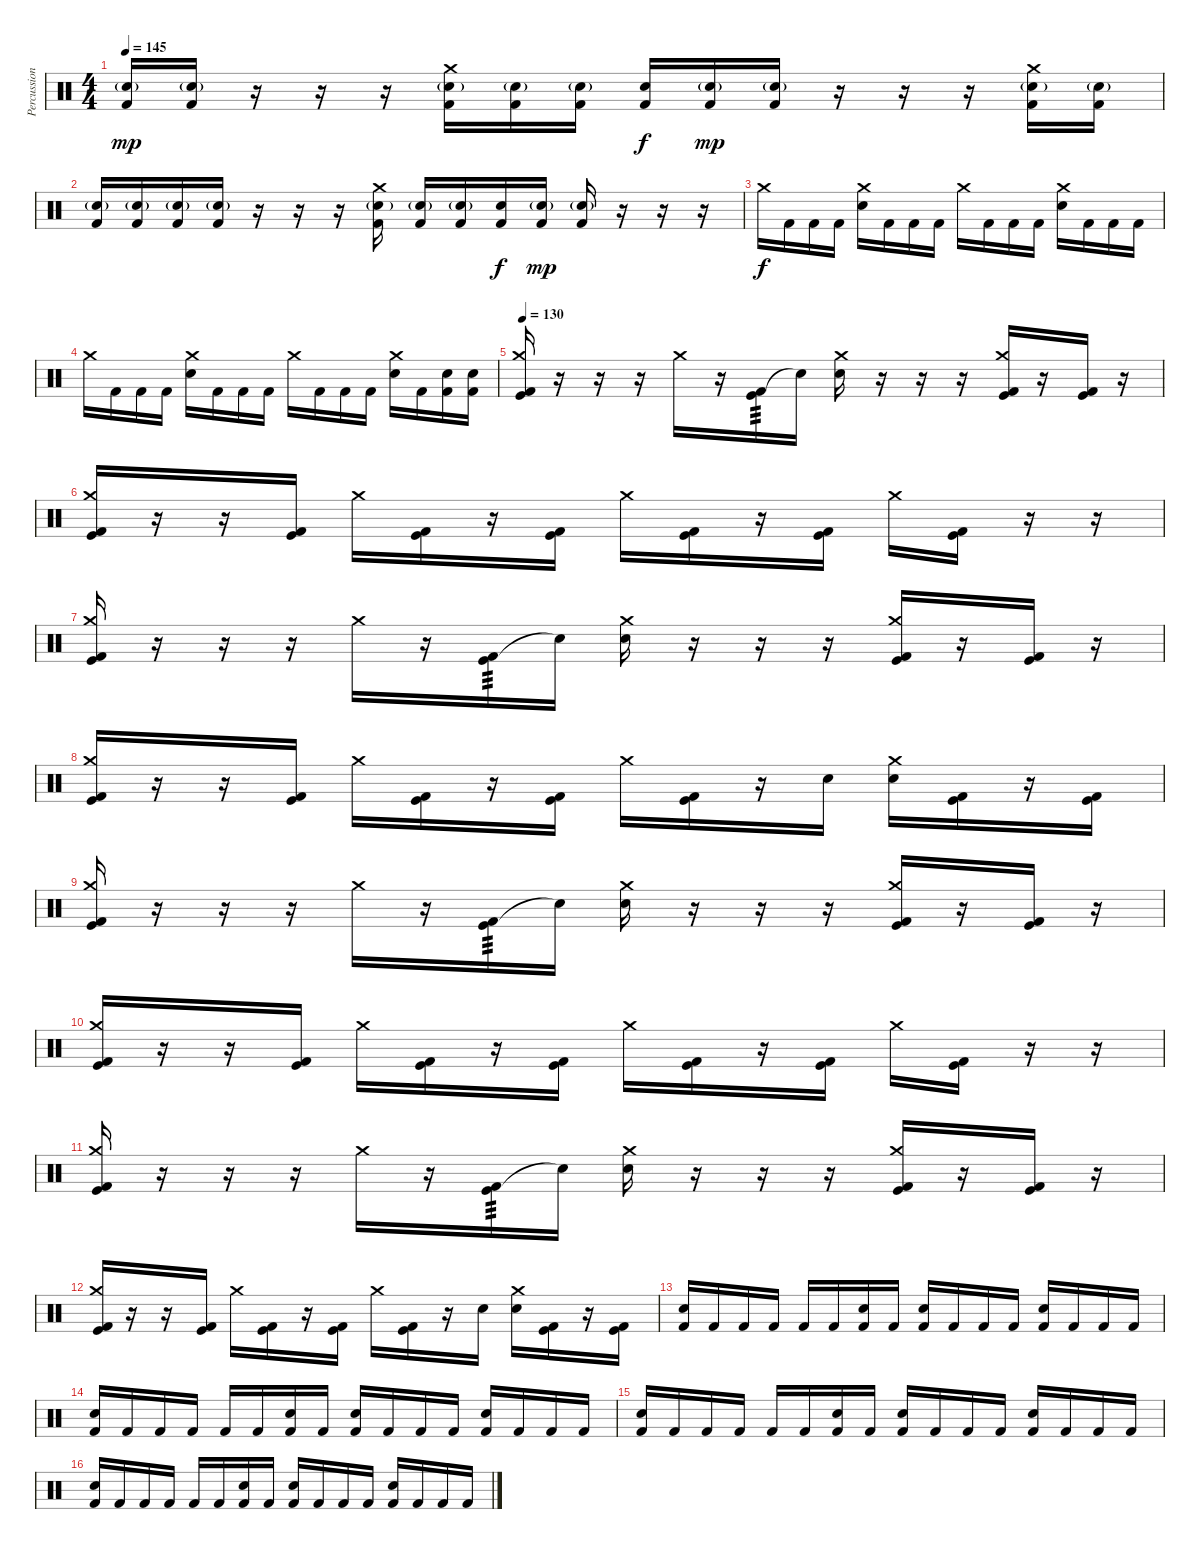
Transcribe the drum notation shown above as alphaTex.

\track ("Percussion" "Percussion") {instrument percussion}
\staff {score}
\articulation defaults
\ts (4 4)
\tempo 145
\clef neutral
\ks c
("Snare (hit) 2"{g} "Kick (hit) 2").16{dy mp} ("Snare (hit) 2"{g} "Kick (hit) 2").16 r.16 r.16 r.16 ("Crash medium (hit)" "Snare (hit) 2"{g} "Kick (hit) 2").16 ("Snare (hit) 2"{g} "Kick (hit) 2").16 ("Snare (hit) 2"{g} "Kick (hit) 2").16 ("Snare (hit) 2" "Kick (hit) 2").16{dy f} ("Snare (hit) 2"{g} "Kick (hit) 2").16{dy mp} ("Snare (hit) 2"{g} "Kick (hit) 2").16 r.16 r.16 r.16 ("Crash medium (hit)" "Snare (hit) 2"{g} "Kick (hit) 2").16 ("Snare (hit) 2"{g} "Kick (hit) 2").16 |
("Snare (hit) 2"{g} "Kick (hit) 2").16 ("Snare (hit) 2"{g} "Kick (hit) 2").16 ("Snare (hit) 2"{g} "Kick (hit) 2").16 ("Snare (hit) 2"{g} "Kick (hit) 2").16 r.16 r.16 r.16 ("Crash medium (hit)" "Snare (hit) 2"{g} "Kick (hit) 2").16 ("Snare (hit) 2"{g} "Kick (hit) 2").16 ("Snare (hit) 2"{g} "Kick (hit) 2").16 ("Snare (hit) 2" "Kick (hit) 2").16{dy f} ("Snare (hit) 2"{g} "Kick (hit) 2").16{dy mp} ("Snare (hit) 2"{g} "Kick (hit) 2").16 r.16 r.16 r.16 |
"Crash medium (hit)".16{dy f} "Kick (hit) 2".16 "Kick (hit) 2".16 "Kick (hit) 2".16 ("Crash medium (hit)" "Electric Snare (hit)").16 "Kick (hit) 2".16 "Kick (hit) 2".16 "Kick (hit) 2".16 "Crash medium (hit)".16 "Kick (hit) 2".16 "Kick (hit) 2".16 "Kick (hit) 2".16 ("Crash medium (hit)" "Electric Snare (hit)").16 "Kick (hit) 2".16 "Kick (hit) 2".16 "Kick (hit) 2".16 |
"Crash medium (hit)".16 "Kick (hit) 2".16 "Kick (hit) 2".16 "Kick (hit) 2".16 ("Crash medium (hit)" "Electric Snare (hit)").16 "Kick (hit) 2".16 "Kick (hit) 2".16 "Kick (hit) 2".16 "Crash medium (hit)".16 "Kick (hit) 2".16 "Kick (hit) 2".16 "Kick (hit) 2".16 ("Crash medium (hit)" "Electric Snare (hit)").16 "Kick (hit) 2".16 ("Electric Snare (hit)" "Kick (hit) 2").16 ("Electric Snare (hit)" "Kick (hit) 2").16 |
\tempo 130
("Crash medium (hit)" "Kick (hit)" "Kick (hit) 2").16 r.16 r.16 r.16 "Crash medium (hit)".16 r.16 ("Kick (hit)" "Kick (hit) 2").16{tp 3} "Snare (hit)"{t}.16 ("Crash medium (hit)" "Electric Snare (hit)").16 r.16 r.16 r.16 ("Crash medium (hit)" "Kick (hit)" "Kick (hit) 2").16 r.16 ("Kick (hit)" "Kick (hit) 2").16 r.16 |
("Crash medium (hit)" "Kick (hit)" "Kick (hit) 2").16 r.16 r.16 ("Kick (hit)" "Kick (hit) 2").16 "Crash medium (hit)".16 ("Kick (hit)" "Kick (hit) 2").16 r.16 ("Kick (hit)" "Kick (hit) 2").16 "Crash medium (hit)".16 ("Kick (hit)" "Kick (hit) 2").16 r.16 ("Kick (hit)" "Kick (hit) 2").16 "Crash medium (hit)".16 ("Kick (hit)" "Kick (hit) 2").16 r.16 r.16 |
("Crash medium (hit)" "Kick (hit)" "Kick (hit) 2").16 r.16 r.16 r.16 "Crash medium (hit)".16 r.16 ("Kick (hit)" "Kick (hit) 2").16{tp 3} "Snare (hit)"{t}.16 ("Crash medium (hit)" "Electric Snare (hit)").16 r.16 r.16 r.16 ("Crash medium (hit)" "Kick (hit)" "Kick (hit) 2").16 r.16 ("Kick (hit)" "Kick (hit) 2").16 r.16 |
("Crash medium (hit)" "Kick (hit)" "Kick (hit) 2").16 r.16 r.16 ("Kick (hit)" "Kick (hit) 2").16 "Crash medium (hit)".16 ("Kick (hit)" "Kick (hit) 2").16 r.16 ("Kick (hit)" "Kick (hit) 2").16 "Crash medium (hit)".16 ("Kick (hit)" "Kick (hit) 2").16 r.16 "Electric Snare (hit)".16 ("Crash medium (hit)" "Snare (hit) 2").16 ("Kick (hit)" "Kick (hit) 2").16 r.16 ("Kick (hit) 2" "Kick (hit)").16 |
("Crash medium (hit)" "Kick (hit)" "Kick (hit) 2").16 r.16 r.16 r.16 "Crash medium (hit)".16 r.16 ("Kick (hit)" "Kick (hit) 2").16{tp 3} "Snare (hit)"{t}.16 ("Crash medium (hit)" "Electric Snare (hit)").16 r.16 r.16 r.16 ("Crash medium (hit)" "Kick (hit)" "Kick (hit) 2").16 r.16 ("Kick (hit)" "Kick (hit) 2").16 r.16 |
("Crash medium (hit)" "Kick (hit)" "Kick (hit) 2").16 r.16 r.16 ("Kick (hit)" "Kick (hit) 2").16 "Crash medium (hit)".16 ("Kick (hit)" "Kick (hit) 2").16 r.16 ("Kick (hit)" "Kick (hit) 2").16 "Crash medium (hit)".16 ("Kick (hit)" "Kick (hit) 2").16 r.16 ("Kick (hit)" "Kick (hit) 2").16 "Crash medium (hit)".16 ("Kick (hit)" "Kick (hit) 2").16 r.16 r.16 |
("Crash medium (hit)" "Kick (hit)" "Kick (hit) 2").16 r.16 r.16 r.16 "Crash medium (hit)".16 r.16 ("Kick (hit)" "Kick (hit) 2").16{tp 3} "Snare (hit)"{t}.16 ("Crash medium (hit)" "Electric Snare (hit)").16 r.16 r.16 r.16 ("Crash medium (hit)" "Kick (hit)" "Kick (hit) 2").16 r.16 ("Kick (hit)" "Kick (hit) 2").16 r.16 |
("Crash medium (hit)" "Kick (hit)" "Kick (hit) 2").16 r.16 r.16 ("Kick (hit)" "Kick (hit) 2").16 "Crash medium (hit)".16 ("Kick (hit)" "Kick (hit) 2").16 r.16 ("Kick (hit)" "Kick (hit) 2").16 "Crash medium (hit)".16 ("Kick (hit)" "Kick (hit) 2").16 r.16 "Electric Snare (hit)".16 ("Crash medium (hit)" "Snare (hit) 2").16 ("Kick (hit)" "Kick (hit) 2").16 r.16 ("Kick (hit) 2" "Kick (hit)").16 |
("Electric Snare (hit)" "Kick (hit) 2").16 "Kick (hit) 2".16 "Kick (hit) 2".16 "Kick (hit) 2".16 "Kick (hit) 2".16 "Kick (hit) 2".16 ("Electric Snare (hit)" "Kick (hit) 2").16 "Kick (hit) 2".16 ("Electric Snare (hit)" "Kick (hit) 2").16 "Kick (hit) 2".16 "Kick (hit) 2".16 "Kick (hit) 2".16 ("Electric Snare (hit)" "Kick (hit) 2").16 "Kick (hit) 2".16 "Kick (hit) 2".16 "Kick (hit) 2".16 |
("Electric Snare (hit)" "Kick (hit) 2").16 "Kick (hit) 2".16 "Kick (hit) 2".16 "Kick (hit) 2".16 "Kick (hit) 2".16 "Kick (hit) 2".16 ("Electric Snare (hit)" "Kick (hit) 2").16 "Kick (hit) 2".16 ("Electric Snare (hit)" "Kick (hit) 2").16 "Kick (hit) 2".16 "Kick (hit) 2".16 "Kick (hit) 2".16 ("Electric Snare (hit)" "Kick (hit) 2").16 "Kick (hit) 2".16 "Kick (hit) 2".16 "Kick (hit) 2".16 |
("Electric Snare (hit)" "Kick (hit) 2").16 "Kick (hit) 2".16 "Kick (hit) 2".16 "Kick (hit) 2".16 "Kick (hit) 2".16 "Kick (hit) 2".16 ("Electric Snare (hit)" "Kick (hit) 2").16 "Kick (hit) 2".16 ("Electric Snare (hit)" "Kick (hit) 2").16 "Kick (hit) 2".16 "Kick (hit) 2".16 "Kick (hit) 2".16 ("Electric Snare (hit)" "Kick (hit) 2").16 "Kick (hit) 2".16 "Kick (hit) 2".16 "Kick (hit) 2".16 |
("Electric Snare (hit)" "Kick (hit) 2").16 "Kick (hit) 2".16 "Kick (hit) 2".16 "Kick (hit) 2".16 "Kick (hit) 2".16 "Kick (hit) 2".16 ("Electric Snare (hit)" "Kick (hit) 2").16 "Kick (hit) 2".16 ("Electric Snare (hit)" "Kick (hit) 2").16 "Kick (hit) 2".16 "Kick (hit) 2".16 "Kick (hit) 2".16 ("Electric Snare (hit)" "Kick (hit) 2").16 "Kick (hit) 2".16 "Kick (hit) 2".16 "Kick (hit) 2".16
